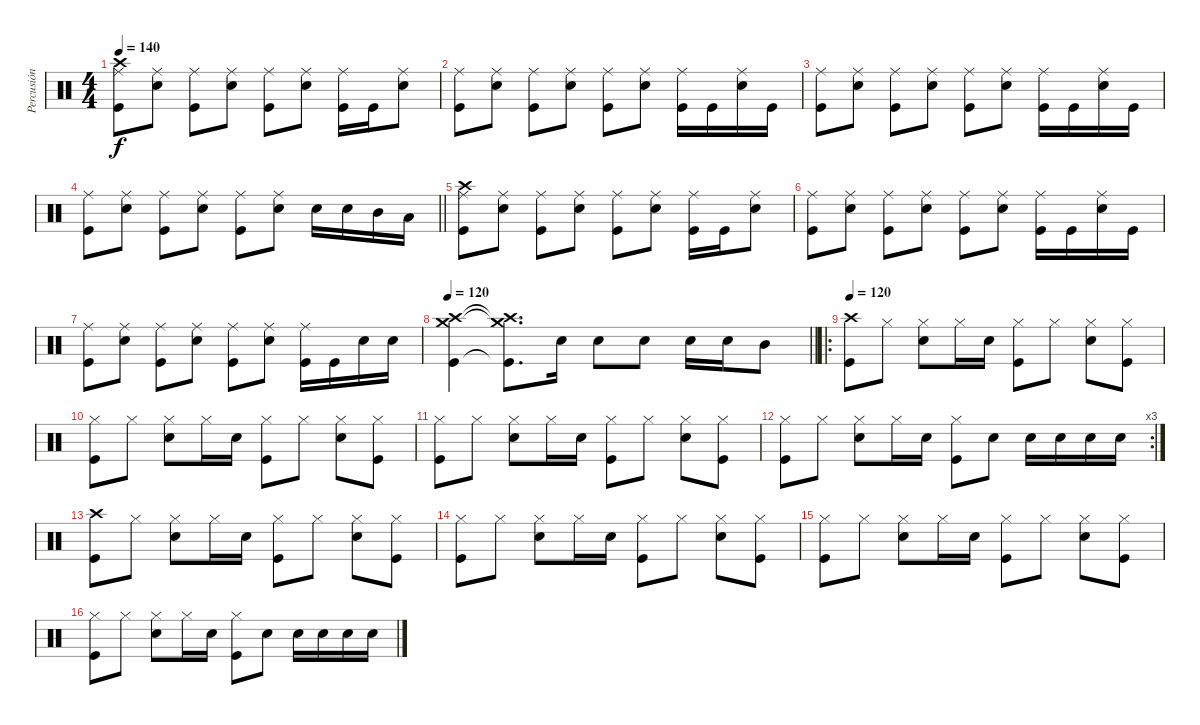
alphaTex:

\track ("Percusión" "Percusión") {instrument percussion}
\staff {score}
\articulation defaults
\ts (4 4)
\tempo 140
\clef neutral
\ks c
("Kick (hit)" "Ride (middle)" "Crash high (hit)").8{dy f} ("Snare (hit) 2" "Ride (middle)").8 ("Kick (hit)" "Ride (middle)").8 ("Snare (hit) 2" "Ride (middle)").8 ("Kick (hit)" "Ride (middle)").8 ("Snare (hit) 2" "Ride (middle)").8 ("Kick (hit)" "Ride (middle)").16 "Kick (hit)".16 ("Snare (hit) 2" "Ride (middle)").8 |
("Kick (hit)" "Ride (middle)").8 ("Snare (hit) 2" "Ride (middle)").8 ("Kick (hit)" "Ride (middle)").8 ("Snare (hit) 2" "Ride (middle)").8 ("Kick (hit)" "Ride (middle)").8 ("Snare (hit) 2" "Ride (middle)").8 ("Kick (hit)" "Ride (middle)").16 "Kick (hit)".16 ("Snare (hit) 2" "Ride (middle)").16 "Kick (hit)".16 |
("Kick (hit)" "Ride (middle)").8 ("Snare (hit) 2" "Ride (middle)").8 ("Kick (hit)" "Ride (middle)").8 ("Snare (hit) 2" "Ride (middle)").8 ("Kick (hit)" "Ride (middle)").8 ("Snare (hit) 2" "Ride (middle)").8 ("Kick (hit)" "Ride (middle)").16 "Kick (hit)".16 ("Snare (hit) 2" "Ride (middle)").16 "Kick (hit)".16 |
\barLineRight lightlight
("Kick (hit)" "Ride (middle)").8 ("Snare (hit) 2" "Ride (middle)").8 ("Kick (hit)" "Ride (middle)").8 ("Snare (hit) 2" "Ride (middle)").8 ("Kick (hit)" "Ride (middle)").8 ("Snare (hit) 2" "Ride (middle)").8 "Snare (hit) 2".16 "Snare (hit) 2".16 "Mid Tom (hit)".16 "Low Tom (hit)".16 |
("Kick (hit)" "Ride (middle)" "Crash high (hit)").8 ("Snare (hit) 2" "Ride (middle)").8 ("Kick (hit)" "Ride (middle)").8 ("Snare (hit) 2" "Ride (middle)").8 ("Kick (hit)" "Ride (middle)").8 ("Snare (hit) 2" "Ride (middle)").8 ("Kick (hit)" "Ride (middle)").16 "Kick (hit)".16 ("Snare (hit) 2" "Ride (middle)").8 |
("Kick (hit)" "Ride (middle)").8 ("Snare (hit) 2" "Ride (middle)").8 ("Kick (hit)" "Ride (middle)").8 ("Snare (hit) 2" "Ride (middle)").8 ("Kick (hit)" "Ride (middle)").8 ("Snare (hit) 2" "Ride (middle)").8 ("Kick (hit)" "Ride (middle)").16 "Kick (hit)".16 ("Snare (hit) 2" "Ride (middle)").16 "Kick (hit)".16 |
("Kick (hit)" "Ride (middle)").8 ("Snare (hit) 2" "Ride (middle)").8 ("Kick (hit)" "Ride (middle)").8 ("Snare (hit) 2" "Ride (middle)").8 ("Kick (hit)" "Ride (middle)").8 ("Snare (hit) 2" "Ride (middle)").8 ("Kick (hit)" "Ride (middle)").16 "Kick (hit)".16 "Snare (hit) 2".16 "Snare (hit) 2".16 |
\tempo 120
\barLineRight lightlight
("Kick (hit)" "Crash high (hit)" "Crash medium (hit)").4 ("Kick (hit)"{t} "Crash high (hit)"{t} "Crash medium (hit)"{t}).8{d} "Snare (hit) 2".16 "Snare (hit) 2".8 "Snare (hit) 2".8 "Snare (hit) 2".16 "Snare (hit) 2".16 "Mid Tom (hit)".8 |
\ro
\tempo 120
("Crash high (hit)" "Kick (hit)").8 "Hi-Hat (closed)".8 ("Hi-Hat (closed)" "Snare (hit) 2").8 "Hi-Hat (closed)".16 "Snare (hit) 2".16 ("Hi-Hat (closed)" "Kick (hit)").8 "Hi-Hat (closed)".8 ("Hi-Hat (closed)" "Snare (hit) 2").8 ("Hi-Hat (closed)" "Kick (hit)").8 |
("Hi-Hat (closed)" "Kick (hit)").8 "Hi-Hat (closed)".8 ("Hi-Hat (closed)" "Snare (hit) 2").8 "Hi-Hat (closed)".16 "Snare (hit) 2".16 ("Hi-Hat (closed)" "Kick (hit)").8 "Hi-Hat (closed)".8 ("Hi-Hat (closed)" "Snare (hit) 2").8 ("Hi-Hat (closed)" "Kick (hit)").8 |
("Hi-Hat (closed)" "Kick (hit)").8 "Hi-Hat (closed)".8 ("Hi-Hat (closed)" "Snare (hit) 2").8 "Hi-Hat (closed)".16 "Snare (hit) 2".16 ("Hi-Hat (closed)" "Kick (hit)").8 "Hi-Hat (closed)".8 ("Hi-Hat (closed)" "Snare (hit) 2").8 ("Hi-Hat (closed)" "Kick (hit)").8 |
\rc 3
("Hi-Hat (closed)" "Kick (hit)").8 "Hi-Hat (closed)".8 ("Hi-Hat (closed)" "Snare (hit) 2").8 "Hi-Hat (closed)".16 "Snare (hit) 2".16 ("Hi-Hat (closed)" "Kick (hit)").8 "Snare (hit) 2".8 "Snare (hit) 2".16 "Snare (hit) 2".16 "Snare (hit) 2".16 "Snare (hit) 2".16 |
("Crash high (hit)" "Kick (hit)").8 "Hi-Hat (closed)".8 ("Hi-Hat (closed)" "Snare (hit) 2").8 "Hi-Hat (closed)".16 "Snare (hit) 2".16 ("Hi-Hat (closed)" "Kick (hit)").8 "Hi-Hat (closed)".8 ("Hi-Hat (closed)" "Snare (hit) 2").8 ("Hi-Hat (closed)" "Kick (hit)").8 |
("Hi-Hat (closed)" "Kick (hit)").8 "Hi-Hat (closed)".8 ("Hi-Hat (closed)" "Snare (hit) 2").8 "Hi-Hat (closed)".16 "Snare (hit) 2".16 ("Hi-Hat (closed)" "Kick (hit)").8 "Hi-Hat (closed)".8 ("Hi-Hat (closed)" "Snare (hit) 2").8 ("Hi-Hat (closed)" "Kick (hit)").8 |
("Hi-Hat (closed)" "Kick (hit)").8 "Hi-Hat (closed)".8 ("Hi-Hat (closed)" "Snare (hit) 2").8 "Hi-Hat (closed)".16 "Snare (hit) 2".16 ("Hi-Hat (closed)" "Kick (hit)").8 "Hi-Hat (closed)".8 ("Hi-Hat (closed)" "Snare (hit) 2").8 ("Hi-Hat (closed)" "Kick (hit)").8 |
("Hi-Hat (closed)" "Kick (hit)").8 "Hi-Hat (closed)".8 ("Hi-Hat (closed)" "Snare (hit) 2").8 "Hi-Hat (closed)".16 "Snare (hit) 2".16 ("Hi-Hat (closed)" "Kick (hit)").8 "Snare (hit) 2".8 "Snare (hit) 2".16 "Snare (hit) 2".16 "Snare (hit) 2".16 "Snare (hit) 2".16
